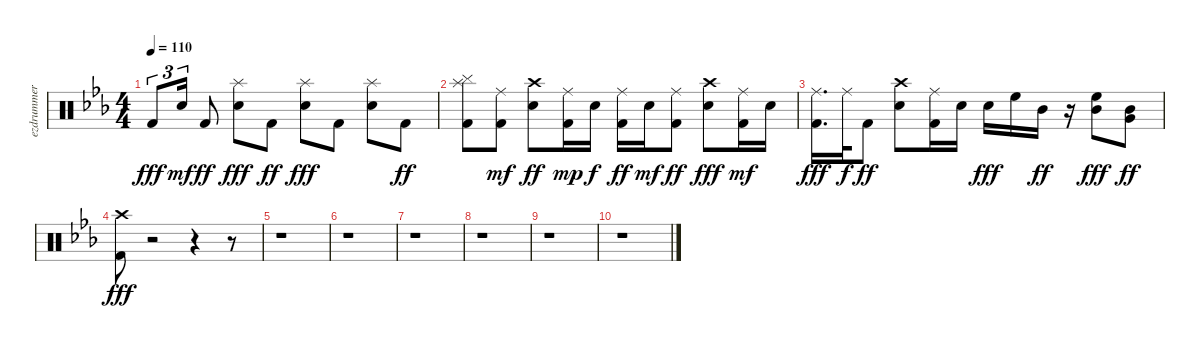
\track ("ezdrummer 03" "ezdrummer ") {instrument percussion}
\staff {score}
\articulation defaults
\ts (4 4)
\tempo 110
\clef neutral
\ks cminor "Kick (hit) 2".8{tu (3 2) dy fff} "Snare (hit) 2".16{tu (3 2) dy mf} "Kick (hit) 2".8{dy ff}
("Snare (hit) 2" "Splash (hit)").8{dy fff} "Kick (hit) 2".8{dy ff} ("Snare (hit) 2" "Splash (hit)").8{dy fff} "Kick (hit) 2".8 ("Snare (hit) 2" "Splash (hit)").8 "Kick (hit) 2".8{dy ff} |
("Cymbal (hit)" "Kick (hit) 2" "Splash (hit)").8 ("Kick (hit) 2" "Ride (middle)").8{dy mf} ("Snare (hit) 2" "Crash high (hit)").8{dy ff} ("Kick (hit) 2" "Ride (middle)").16{dy mp} "Snare (hit) 2".16{dy f} ("Kick (hit) 2" "Ride (middle)").16{dy ff} "Snare (hit) 2".16{dy mf} ("Kick (hit) 2" "Ride (middle)").8{dy ff} ("Snare (hit) 2" "Crash high (hit)").8{dy fff} ("Kick (hit) 2" "Ride (middle)").16{dy mf} "Snare (hit) 2".16 |
("Ride (middle)" "Kick (hit) 2").16{d dy fff} "Ride (middle)".32{dy f} "Kick (hit) 2".8{dy ff} ("Snare (hit) 2" "Crash high (hit)").8 ("Kick (hit) 2" "Ride (middle)").16 "Snare (hit) 2".16 "Snare (hit) 2".16{dy fff} "High Floor Tom (hit)".16 "Mid Tom (hit)".16{dy ff} r.16 ("Mid Tom (hit)" "High Floor Tom (hit)").8{dy fff} ("Very Low Tom (hit)" "Mid Tom (hit)").8{dy ff} |
("Kick (hit) 2" "Crash high (hit)").8{dy fff} r.2 r.4 r.8 |
r.1 |
r.1 |
r.1 |
r.1 |
r.1 |
r.1
